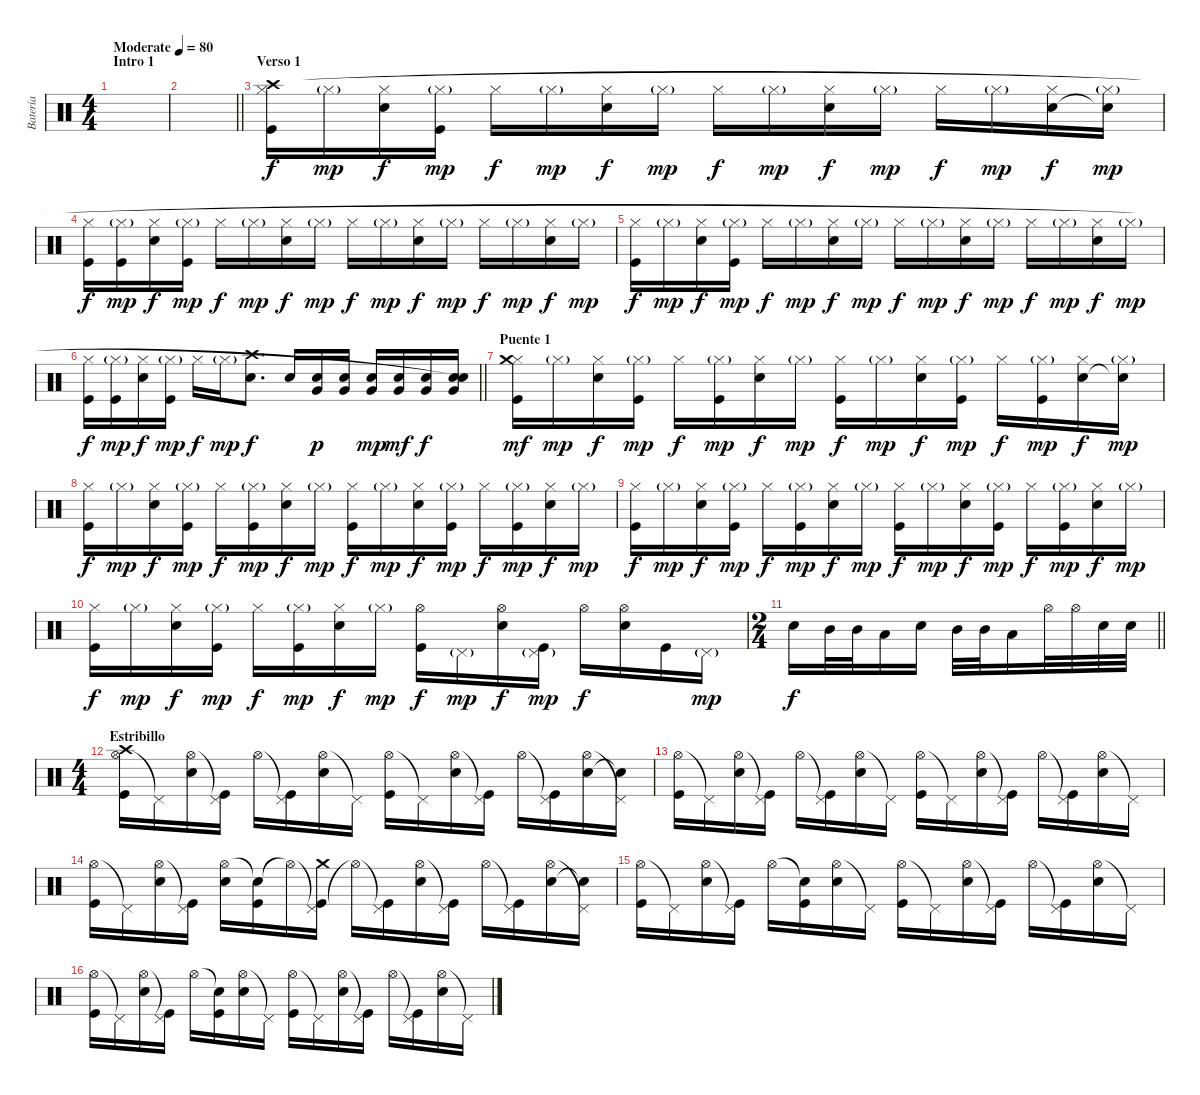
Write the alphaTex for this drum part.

\track ("Batería" "Batería") {instrument percussion}
\staff {score}
\articulation defaults
\ts (4 4)
\section ("" "Intro 1")
\tempo (80 "Moderate")
\clef neutral
\ks c
|
\barLineRight lightlight
|
\section ("" "Verso 1")
("Hi-Hat (closed)" "Kick (hit)" "Crash high (hit)").16 "Hi-Hat (closed)"{g}.16{dy mp} ("Hi-Hat (closed)" "Electric Snare (hit)").16{dy f} ("Hi-Hat (closed)"{g} "Kick (hit)").16{dy mp} "Hi-Hat (closed)".16{dy f} "Hi-Hat (closed)"{g}.16{dy mp} ("Hi-Hat (closed)" "Electric Snare (hit)").16{dy f} "Hi-Hat (closed)"{g}.16{dy mp} "Hi-Hat (closed)".16{dy f} "Hi-Hat (closed)"{g}.16{dy mp} ("Hi-Hat (closed)" "Electric Snare (hit)").16{dy f} "Hi-Hat (closed)"{g}.16{dy mp} "Hi-Hat (closed)".16{dy f} "Hi-Hat (closed)"{g}.16{dy mp} ("Hi-Hat (closed)" "Electric Snare (hit)").16{dy f} ("Hi-Hat (closed)"{g} "Snare (hit)"{t}).16{dy mp} |
("Hi-Hat (closed)" "Kick (hit)").16{dy f} ("Hi-Hat (closed)"{g} "Kick (hit)").16{dy mp} ("Hi-Hat (closed)" "Electric Snare (hit)").16{dy f} ("Hi-Hat (closed)"{g} "Kick (hit)").16{dy mp} "Hi-Hat (closed)".16{dy f} "Hi-Hat (closed)"{g}.16{dy mp} ("Hi-Hat (closed)" "Electric Snare (hit)").16{dy f} "Hi-Hat (closed)"{g}.16{dy mp} "Hi-Hat (closed)".16{dy f} "Hi-Hat (closed)"{g}.16{dy mp} ("Hi-Hat (closed)" "Electric Snare (hit)").16{dy f} "Hi-Hat (closed)"{g}.16{dy mp} "Hi-Hat (closed)".16{dy f} "Hi-Hat (closed)"{g}.16{dy mp} ("Hi-Hat (closed)" "Electric Snare (hit)").16{dy f} "Hi-Hat (closed)"{g}.16{dy mp} |
("Hi-Hat (closed)" "Kick (hit)").16{dy f} "Hi-Hat (closed)"{g}.16{dy mp} ("Hi-Hat (closed)" "Electric Snare (hit)").16{dy f} ("Hi-Hat (closed)"{g} "Kick (hit)").16{dy mp} "Hi-Hat (closed)".16{dy f} "Hi-Hat (closed)"{g}.16{dy mp} ("Hi-Hat (closed)" "Electric Snare (hit)").16{dy f} "Hi-Hat (closed)"{g}.16{dy mp} "Hi-Hat (closed)".16{dy f} "Hi-Hat (closed)"{g}.16{dy mp} ("Hi-Hat (closed)" "Electric Snare (hit)").16{dy f} "Hi-Hat (closed)"{g}.16{dy mp} "Hi-Hat (closed)".16{dy f} "Hi-Hat (closed)"{g}.16{dy mp} ("Hi-Hat (closed)" "Electric Snare (hit)").16{dy f} "Hi-Hat (closed)"{g}.16{dy mp} |
\barLineRight lightlight
("Hi-Hat (closed)" "Kick (hit)").16{dy f} ("Hi-Hat (closed)"{g} "Kick (hit)").16{dy mp} ("Hi-Hat (closed)" "Electric Snare (hit)").16{dy f} ("Hi-Hat (closed)"{g} "Kick (hit)").16{dy mp} "Hi-Hat (closed)".16{dy f} "Hi-Hat (closed)"{g}.16{dy mp} ("Electric Snare (hit)" "Crash high (hit)").8{d dy f} "Electric Snare (hit)".16 ("Very Low Tom (hit)" "Electric Snare (hit)").16{dy p} ("Very Low Tom (hit)" "Electric Snare (hit)").16 ("Very Low Tom (hit)" "Electric Snare (hit)").16{dy mp} ("Very Low Tom (hit)" "Electric Snare (hit)").16{dy mf} ("Very Low Tom (hit)" "Electric Snare (hit)").16{dy f} ("Very Low Tom (hit)" "Electric Snare (hit)" "Snare (hit)"{t}).16 |
\section ("" "Puente 1")
("Hi-Hat (closed)" "Kick (hit)" "Crash medium (hit)").16{dy mf} "Hi-Hat (closed)"{g}.16{dy mp} ("Hi-Hat (closed)" "Electric Snare (hit)").16{dy f} ("Hi-Hat (closed)"{g} "Kick (hit)").16{dy mp} "Hi-Hat (closed)".16{dy f} ("Hi-Hat (closed)"{g} "Kick (hit)").16{dy mp} ("Hi-Hat (closed)" "Electric Snare (hit)").16{dy f} "Hi-Hat (closed)"{g}.16{dy mp} ("Hi-Hat (closed)" "Kick (hit)").16{dy f} "Hi-Hat (closed)"{g}.16{dy mp} ("Hi-Hat (closed)" "Electric Snare (hit)").16{dy f} ("Hi-Hat (closed)"{g} "Kick (hit)").16{dy mp} "Hi-Hat (closed)".16{dy f} ("Hi-Hat (closed)"{g} "Kick (hit)").16{dy mp} ("Hi-Hat (closed)" "Electric Snare (hit)").16{dy f} ("Hi-Hat (closed)"{g} "Snare (hit)"{t}).16{dy mp} |
("Hi-Hat (closed)" "Kick (hit)").16{dy f} "Hi-Hat (closed)"{g}.16{dy mp} ("Hi-Hat (closed)" "Electric Snare (hit)").16{dy f} ("Hi-Hat (closed)"{g} "Kick (hit)").16{dy mp} "Hi-Hat (closed)".16{dy f} ("Hi-Hat (closed)"{g} "Kick (hit)").16{dy mp} ("Hi-Hat (closed)" "Electric Snare (hit)").16{dy f} "Hi-Hat (closed)"{g}.16{dy mp} ("Hi-Hat (closed)" "Kick (hit)").16{dy f} "Hi-Hat (closed)"{g}.16{dy mp} ("Hi-Hat (closed)" "Electric Snare (hit)").16{dy f} ("Hi-Hat (closed)"{g} "Kick (hit)").16{dy mp} "Hi-Hat (closed)".16{dy f} ("Hi-Hat (closed)"{g} "Kick (hit)").16{dy mp} ("Hi-Hat (closed)" "Electric Snare (hit)").16{dy f} "Hi-Hat (closed)"{g}.16{dy mp} |
("Hi-Hat (closed)" "Kick (hit)").16{dy f} "Hi-Hat (closed)"{g}.16{dy mp} ("Hi-Hat (closed)" "Electric Snare (hit)").16{dy f} ("Hi-Hat (closed)"{g} "Kick (hit)").16{dy mp} "Hi-Hat (closed)".16{dy f} ("Hi-Hat (closed)"{g} "Kick (hit)").16{dy mp} ("Hi-Hat (closed)" "Electric Snare (hit)").16{dy f} "Hi-Hat (closed)"{g}.16{dy mp} ("Hi-Hat (closed)" "Kick (hit)").16{dy f} "Hi-Hat (closed)"{g}.16{dy mp} ("Hi-Hat (closed)" "Electric Snare (hit)").16{dy f} ("Hi-Hat (closed)"{g} "Kick (hit)").16{dy mp} "Hi-Hat (closed)".16{dy f} ("Hi-Hat (closed)"{g} "Kick (hit)").16{dy mp} ("Hi-Hat (closed)" "Electric Snare (hit)").16{dy f} "Hi-Hat (closed)"{g}.16{dy mp} |
("Hi-Hat (closed)" "Kick (hit)").16{dy f} "Hi-Hat (closed)"{g}.16{dy mp} ("Hi-Hat (closed)" "Electric Snare (hit)").16{dy f} ("Hi-Hat (closed)"{g} "Kick (hit)").16{dy mp} "Hi-Hat (closed)".16{dy f} ("Hi-Hat (closed)"{g} "Kick (hit)").16{dy mp} ("Hi-Hat (closed)" "Electric Snare (hit)").16{dy f} "Hi-Hat (closed)"{g}.16{dy mp} ("Hi-Hat (open)" "Kick (hit)").16{dy f} "Pedal Hi-Hat (hit)"{g}.16{dy mp} ("Hi-Hat (open)" "Electric Snare (hit)").16{dy f} ("Pedal Hi-Hat (hit)"{g} "Kick (hit)").16{dy mp} "Hi-Hat (open)".16{dy f} ("Hi-Hat (open)" "Electric Snare (hit)").16 "Kick (hit)".16 "Pedal Hi-Hat (hit)"{g}.16{dy mp} |
\ts (2 4)
\barLineRight lightlight "Electric Snare (hit)".16{dy f} "Mid Tom (hit)".32 "Mid Tom (hit)".32 "Low Tom (hit)".16 "Electric Snare (hit)".16 "Mid Tom (hit)".32 "Mid Tom (hit)".32 "Low Tom (hit)".16 "Hi-Hat (open)".32 "Hi-Hat (open)".32 "Electric Snare (hit)".32 "Electric Snare (hit)".32
|
\ts (4 4)
\section ("" "Estribillo")
("Hi-Hat (open)" "Kick (hit)" "Crash high (hit)").16 "Pedal Hi-Hat (hit)"{t}.16 ("Hi-Hat (open)" "Electric Snare (hit)").16 ("Pedal Hi-Hat (hit)"{t} "Kick (hit)").16 "Hi-Hat (open)".16 ("Pedal Hi-Hat (hit)"{t} "Kick (hit)").16 ("Hi-Hat (open)" "Electric Snare (hit)").16 "Pedal Hi-Hat (hit)"{t}.16 ("Hi-Hat (open)" "Kick (hit)").16 "Pedal Hi-Hat (hit)"{t}.16 ("Hi-Hat (open)" "Electric Snare (hit)").16 ("Pedal Hi-Hat (hit)"{t} "Kick (hit)").16 "Hi-Hat (open)".16 ("Pedal Hi-Hat (hit)"{t} "Kick (hit)").16 ("Hi-Hat (open)" "Electric Snare (hit)").16 ("Pedal Hi-Hat (hit)"{t} "Snare (hit)"{t}).16 |
("Hi-Hat (open)" "Kick (hit)").16 "Pedal Hi-Hat (hit)"{t}.16 ("Hi-Hat (open)" "Electric Snare (hit)").16 ("Pedal Hi-Hat (hit)"{t} "Kick (hit)").16 "Hi-Hat (open)".16 ("Pedal Hi-Hat (hit)"{t} "Kick (hit)").16 ("Hi-Hat (open)" "Electric Snare (hit)").16 "Pedal Hi-Hat (hit)"{t}.16 ("Hi-Hat (open)" "Kick (hit)").16 "Pedal Hi-Hat (hit)"{t}.16 ("Hi-Hat (open)" "Electric Snare (hit)").16 ("Pedal Hi-Hat (hit)"{t} "Kick (hit)").16 "Hi-Hat (open)".16 ("Pedal Hi-Hat (hit)"{t} "Kick (hit)").16 ("Hi-Hat (open)" "Electric Snare (hit)").16 "Pedal Hi-Hat (hit)"{t}.16 |
("Hi-Hat (open)" "Kick (hit)").16 "Pedal Hi-Hat (hit)"{t}.16 ("Hi-Hat (open)" "Electric Snare (hit)").16 ("Pedal Hi-Hat (hit)"{t} "Kick (hit)").16 ("Hi-Hat (open)" "Electric Snare (hit)").16 ("Snare (hit)"{t} "Kick (hit)").16 "Hi-Hat (open)"{t}.16 ("Pedal Hi-Hat (hit)"{t} "Kick (hit)" "Crash medium (hit)").16 "Hi-Hat (open)"{t}.16 ("Pedal Hi-Hat (hit)"{t} "Kick (hit)").16 ("Hi-Hat (open)" "Electric Snare (hit)").16 ("Pedal Hi-Hat (hit)"{t} "Kick (hit)").16 "Hi-Hat (open)".16 ("Pedal Hi-Hat (hit)"{t} "Kick (hit)").16 ("Hi-Hat (open)" "Electric Snare (hit)").16 ("Pedal Hi-Hat (hit)"{t} "Snare (hit)"{t}).16 |
("Hi-Hat (open)" "Kick (hit)").16 "Pedal Hi-Hat (hit)"{t}.16 ("Hi-Hat (open)" "Electric Snare (hit)").16 ("Pedal Hi-Hat (hit)"{t} "Kick (hit)").16 "Hi-Hat (open)".16 ("Snare (hit)"{t} "Kick (hit)").16 ("Hi-Hat (open)" "Electric Snare (hit)").16 "Pedal Hi-Hat (hit)"{t}.16 ("Hi-Hat (open)" "Kick (hit)").16 "Pedal Hi-Hat (hit)"{t}.16 ("Hi-Hat (open)" "Electric Snare (hit)").16 ("Pedal Hi-Hat (hit)"{t} "Kick (hit)").16 "Hi-Hat (open)".16 ("Pedal Hi-Hat (hit)"{t} "Kick (hit)").16 ("Hi-Hat (open)" "Electric Snare (hit)").16 "Pedal Hi-Hat (hit)"{t}.16 |
("Hi-Hat (open)" "Kick (hit)").16 "Pedal Hi-Hat (hit)"{t}.16 ("Hi-Hat (open)" "Electric Snare (hit)").16 ("Pedal Hi-Hat (hit)"{t} "Kick (hit)").16 "Hi-Hat (open)".16 ("Snare (hit)"{t} "Kick (hit)").16 ("Hi-Hat (open)" "Electric Snare (hit)").16 "Pedal Hi-Hat (hit)"{t}.16 ("Hi-Hat (open)" "Kick (hit)").16 "Pedal Hi-Hat (hit)"{t}.16 ("Hi-Hat (open)" "Electric Snare (hit)").16 ("Pedal Hi-Hat (hit)"{t} "Kick (hit)").16 "Hi-Hat (open)".16 ("Pedal Hi-Hat (hit)"{t} "Kick (hit)").16 ("Hi-Hat (open)" "Electric Snare (hit)").16 "Pedal Hi-Hat (hit)"{t}.16
